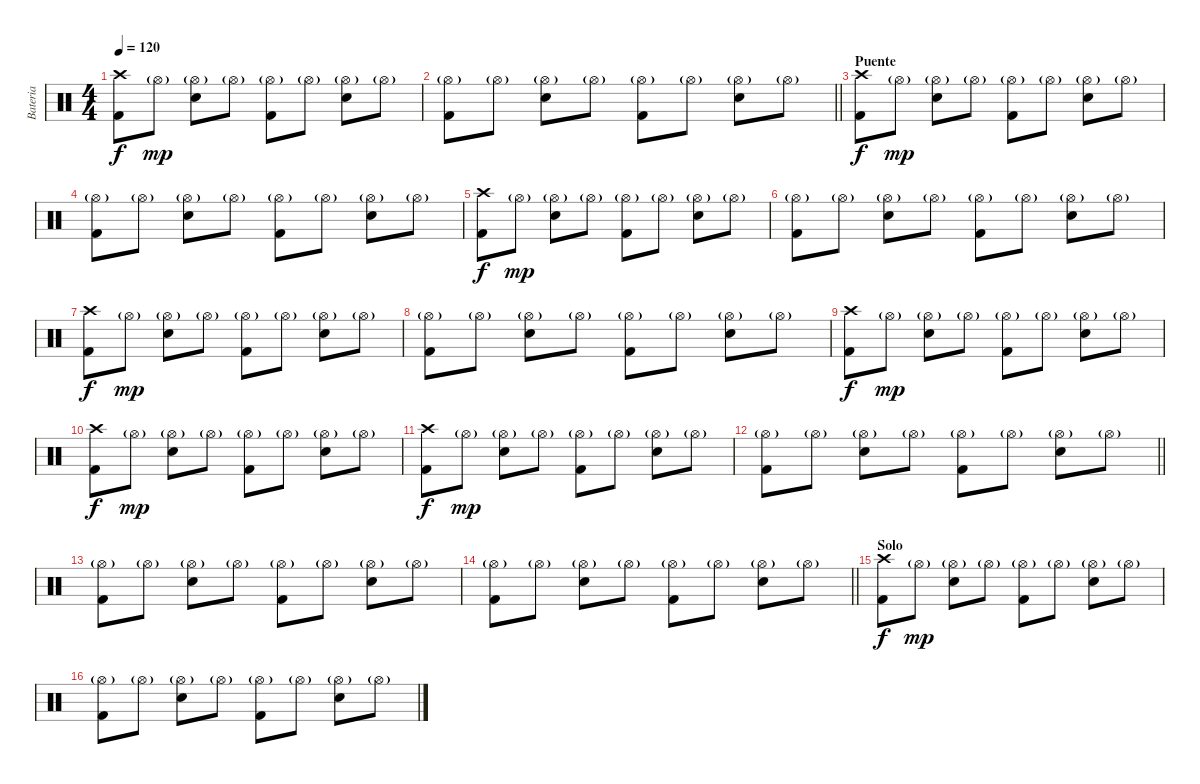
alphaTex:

\track ("Bateria" "Bateria") {instrument percussion}
\staff {score}
\articulation defaults
\ts (4 4)
\tempo 120
\clef neutral
\ks c
("Crash high (hit)" "Kick (hit) 2").8{dy f} "Hi-Hat (open)"{g}.8{dy mp} ("Hi-Hat (open)"{g} "Snare (hit) 2").8 "Hi-Hat (open)"{g}.8 ("Hi-Hat (open)"{g} "Kick (hit) 2").8 "Hi-Hat (open)"{g}.8 ("Hi-Hat (open)"{g} "Snare (hit) 2").8 "Hi-Hat (open)"{g}.8 |
\barLineRight lightlight
("Hi-Hat (open)"{g} "Kick (hit) 2").8 "Hi-Hat (open)"{g}.8 ("Hi-Hat (open)"{g} "Snare (hit) 2").8 "Hi-Hat (open)"{g}.8 ("Hi-Hat (open)"{g} "Kick (hit) 2").8 "Hi-Hat (open)"{g}.8 ("Hi-Hat (open)"{g} "Snare (hit) 2").8 "Hi-Hat (open)"{g}.8 |
\section ("" "Puente")
("Crash high (hit)" "Kick (hit) 2").8{dy f} "Hi-Hat (open)"{g}.8{dy mp} ("Hi-Hat (open)"{g} "Snare (hit) 2").8 "Hi-Hat (open)"{g}.8 ("Hi-Hat (open)"{g} "Kick (hit) 2").8 "Hi-Hat (open)"{g}.8 ("Hi-Hat (open)"{g} "Snare (hit) 2").8 "Hi-Hat (open)"{g}.8 |
("Hi-Hat (open)"{g} "Kick (hit) 2").8 "Hi-Hat (open)"{g}.8 ("Hi-Hat (open)"{g} "Snare (hit) 2").8 "Hi-Hat (open)"{g}.8 ("Hi-Hat (open)"{g} "Kick (hit) 2").8 "Hi-Hat (open)"{g}.8 ("Hi-Hat (open)"{g} "Snare (hit) 2").8 "Hi-Hat (open)"{g}.8 |
("Crash high (hit)" "Kick (hit) 2").8{dy f} "Hi-Hat (open)"{g}.8{dy mp} ("Hi-Hat (open)"{g} "Snare (hit) 2").8 "Hi-Hat (open)"{g}.8 ("Hi-Hat (open)"{g} "Kick (hit) 2").8 "Hi-Hat (open)"{g}.8 ("Hi-Hat (open)"{g} "Snare (hit) 2").8 "Hi-Hat (open)"{g}.8 |
("Hi-Hat (open)"{g} "Kick (hit) 2").8 "Hi-Hat (open)"{g}.8 ("Hi-Hat (open)"{g} "Snare (hit) 2").8 "Hi-Hat (open)"{g}.8 ("Hi-Hat (open)"{g} "Kick (hit) 2").8 "Hi-Hat (open)"{g}.8 ("Hi-Hat (open)"{g} "Snare (hit) 2").8 "Hi-Hat (open)"{g}.8 |
("Crash high (hit)" "Kick (hit) 2").8{dy f} "Hi-Hat (open)"{g}.8{dy mp} ("Hi-Hat (open)"{g} "Snare (hit) 2").8 "Hi-Hat (open)"{g}.8 ("Hi-Hat (open)"{g} "Kick (hit) 2").8 "Hi-Hat (open)"{g}.8 ("Hi-Hat (open)"{g} "Snare (hit) 2").8 "Hi-Hat (open)"{g}.8 |
("Hi-Hat (open)"{g} "Kick (hit) 2").8 "Hi-Hat (open)"{g}.8 ("Hi-Hat (open)"{g} "Snare (hit) 2").8 "Hi-Hat (open)"{g}.8 ("Hi-Hat (open)"{g} "Kick (hit) 2").8 "Hi-Hat (open)"{g}.8 ("Hi-Hat (open)"{g} "Snare (hit) 2").8 "Hi-Hat (open)"{g}.8 |
("Crash high (hit)" "Kick (hit) 2").8{dy f} "Hi-Hat (open)"{g}.8{dy mp} ("Hi-Hat (open)"{g} "Snare (hit) 2").8 "Hi-Hat (open)"{g}.8 ("Hi-Hat (open)"{g} "Kick (hit) 2").8 "Hi-Hat (open)"{g}.8 ("Hi-Hat (open)"{g} "Snare (hit) 2").8 "Hi-Hat (open)"{g}.8 |
("Crash high (hit)" "Kick (hit) 2").8{dy f} "Hi-Hat (open)"{g}.8{dy mp} ("Hi-Hat (open)"{g} "Snare (hit) 2").8 "Hi-Hat (open)"{g}.8 ("Hi-Hat (open)"{g} "Kick (hit) 2").8 "Hi-Hat (open)"{g}.8 ("Hi-Hat (open)"{g} "Snare (hit) 2").8 "Hi-Hat (open)"{g}.8 |
("Crash high (hit)" "Kick (hit) 2").8{dy f} "Hi-Hat (open)"{g}.8{dy mp} ("Hi-Hat (open)"{g} "Snare (hit) 2").8 "Hi-Hat (open)"{g}.8 ("Hi-Hat (open)"{g} "Kick (hit) 2").8 "Hi-Hat (open)"{g}.8 ("Hi-Hat (open)"{g} "Snare (hit) 2").8 "Hi-Hat (open)"{g}.8 |
\barLineRight lightlight
("Hi-Hat (open)"{g} "Kick (hit) 2").8 "Hi-Hat (open)"{g}.8 ("Hi-Hat (open)"{g} "Snare (hit) 2").8 "Hi-Hat (open)"{g}.8 ("Hi-Hat (open)"{g} "Kick (hit) 2").8 "Hi-Hat (open)"{g}.8 ("Hi-Hat (open)"{g} "Snare (hit) 2").8 "Hi-Hat (open)"{g}.8 |
("Hi-Hat (open)"{g} "Kick (hit) 2").8 "Hi-Hat (open)"{g}.8 ("Hi-Hat (open)"{g} "Snare (hit) 2").8 "Hi-Hat (open)"{g}.8 ("Hi-Hat (open)"{g} "Kick (hit) 2").8 "Hi-Hat (open)"{g}.8 ("Hi-Hat (open)"{g} "Snare (hit) 2").8 "Hi-Hat (open)"{g}.8 |
\barLineRight lightlight
("Hi-Hat (open)"{g} "Kick (hit) 2").8 "Hi-Hat (open)"{g}.8 ("Hi-Hat (open)"{g} "Snare (hit) 2").8 "Hi-Hat (open)"{g}.8 ("Hi-Hat (open)"{g} "Kick (hit) 2").8 "Hi-Hat (open)"{g}.8 ("Hi-Hat (open)"{g} "Snare (hit) 2").8 "Hi-Hat (open)"{g}.8 |
\section ("" "Solo")
("Crash high (hit)" "Kick (hit) 2").8{dy f} "Hi-Hat (open)"{g}.8{dy mp} ("Hi-Hat (open)"{g} "Snare (hit) 2").8 "Hi-Hat (open)"{g}.8 ("Hi-Hat (open)"{g} "Kick (hit) 2").8 "Hi-Hat (open)"{g}.8 ("Hi-Hat (open)"{g} "Snare (hit) 2").8 "Hi-Hat (open)"{g}.8 |
("Hi-Hat (open)"{g} "Kick (hit) 2").8 "Hi-Hat (open)"{g}.8 ("Hi-Hat (open)"{g} "Snare (hit) 2").8 "Hi-Hat (open)"{g}.8 ("Hi-Hat (open)"{g} "Kick (hit) 2").8 "Hi-Hat (open)"{g}.8 ("Hi-Hat (open)"{g} "Snare (hit) 2").8 "Hi-Hat (open)"{g}.8
